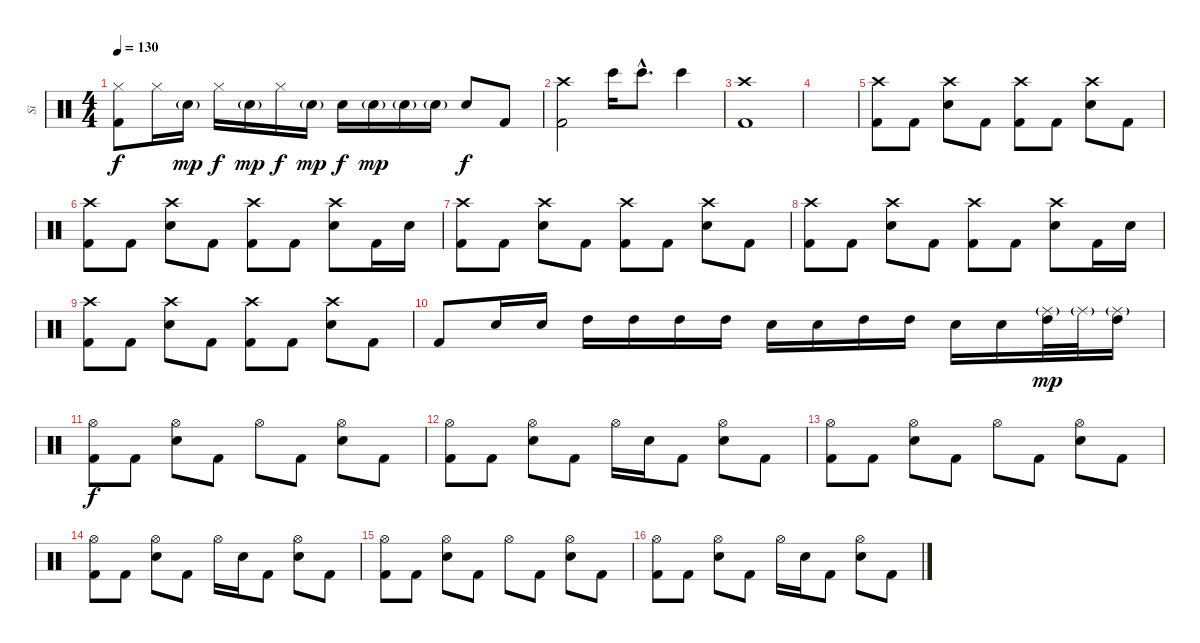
\track ("Si" "Si") {instrument percussion}
\staff {score}
\articulation defaults
\ts (4 4)
\tempo 130
\clef neutral
\ks c
("Hi-Hat (closed)" "Kick (hit) 2").8{dy f} "Hi-Hat (closed)".16 "Electric Snare (hit)"{g}.16{dy mp} "Hi-Hat (closed)".16{dy f} "Electric Snare (hit)"{g}.16{dy mp} "Hi-Hat (closed)".16{dy f} "Electric Snare (hit)"{g}.16{dy mp} "Electric Snare (hit)".16{dy f} "Electric Snare (hit)"{g}.16{dy mp} "Electric Snare (hit)"{g}.16 "Electric Snare (hit)"{g}.16 "Electric Snare (hit)".8{dy f} "Kick (hit) 2".8 |
("Crash high (hit)" "Kick (hit) 2").2 "Bongo High (hit)".16 "Bongo High (hit)"{hac}.8{d} "Bongo High (hit)".4 |
("Crash high (hit)" "Kick (hit) 2").1 |
|
("Crash high (hit)" "Kick (hit) 2").8 "Kick (hit) 2".8 ("Crash high (hit)" "Electric Snare (hit)").8 "Kick (hit) 2".8 ("Crash high (hit)" "Kick (hit) 2").8 "Kick (hit) 2".8 ("Crash high (hit)" "Electric Snare (hit)").8 "Kick (hit) 2".8 |
("Crash high (hit)" "Kick (hit) 2").8 "Kick (hit) 2".8 ("Crash high (hit)" "Electric Snare (hit)").8 "Kick (hit) 2".8 ("Crash high (hit)" "Kick (hit) 2").8 "Kick (hit) 2".8 ("Crash high (hit)" "Electric Snare (hit)").8 "Kick (hit) 2".16 "Electric Snare (hit)".16 |
("Crash high (hit)" "Kick (hit) 2").8 "Kick (hit) 2".8 ("Crash high (hit)" "Electric Snare (hit)").8 "Kick (hit) 2".8 ("Crash high (hit)" "Kick (hit) 2").8 "Kick (hit) 2".8 ("Crash high (hit)" "Electric Snare (hit)").8 "Kick (hit) 2".8 |
("Crash high (hit)" "Kick (hit) 2").8 "Kick (hit) 2".8 ("Crash high (hit)" "Electric Snare (hit)").8 "Kick (hit) 2".8 ("Crash high (hit)" "Kick (hit) 2").8 "Kick (hit) 2".8 ("Crash high (hit)" "Electric Snare (hit)").8 "Kick (hit) 2".16 "Electric Snare (hit)".16 |
("Crash high (hit)" "Kick (hit) 2").8 "Kick (hit) 2".8 ("Crash high (hit)" "Electric Snare (hit)").8 "Kick (hit) 2".8 ("Crash high (hit)" "Kick (hit) 2").8 "Kick (hit) 2".8 ("Crash high (hit)" "Electric Snare (hit)").8 "Kick (hit) 2".8 |
"Kick (hit) 2".8 "Electric Snare (hit)".16 "Electric Snare (hit)".16 "High Tom (hit)".16 "High Tom (hit)".16 "High Tom (hit)".16 "High Tom (hit)".16 "Electric Snare (hit)".16 "Electric Snare (hit)".16 "High Tom (hit)".16 "High Tom (hit)".16 "Electric Snare (hit)".16 "Electric Snare (hit)".16 ("Ride (middle)"{g} "High Tom (hit)").32{dy mp} "Ride (middle)"{g}.32 ("Ride (middle)"{g} "High Tom (hit)").16 |
("Hi-Hat (open)" "Kick (hit) 2").8{dy f} "Kick (hit) 2".8 ("Hi-Hat (open)" "Electric Snare (hit)").8 "Kick (hit) 2".8 "Hi-Hat (open)".8 "Kick (hit) 2".8 ("Hi-Hat (open)" "Electric Snare (hit)").8 "Kick (hit) 2".8 |
("Hi-Hat (open)" "Kick (hit) 2").8 "Kick (hit) 2".8 ("Hi-Hat (open)" "Electric Snare (hit)").8 "Kick (hit) 2".8 "Hi-Hat (open)".16 "Electric Snare (hit)".16 "Kick (hit) 2".8 ("Hi-Hat (open)" "Electric Snare (hit)").8 "Kick (hit) 2".8 |
("Hi-Hat (open)" "Kick (hit) 2").8 "Kick (hit) 2".8 ("Hi-Hat (open)" "Electric Snare (hit)").8 "Kick (hit) 2".8 "Hi-Hat (open)".8 "Kick (hit) 2".8 ("Hi-Hat (open)" "Electric Snare (hit)").8 "Kick (hit) 2".8 |
("Hi-Hat (open)" "Kick (hit) 2").8 "Kick (hit) 2".8 ("Hi-Hat (open)" "Electric Snare (hit)").8 "Kick (hit) 2".8 "Hi-Hat (open)".16 "Electric Snare (hit)".16 "Kick (hit) 2".8 ("Hi-Hat (open)" "Electric Snare (hit)").8 "Kick (hit) 2".8 |
("Hi-Hat (open)" "Kick (hit) 2").8 "Kick (hit) 2".8 ("Hi-Hat (open)" "Electric Snare (hit)").8 "Kick (hit) 2".8 "Hi-Hat (open)".8 "Kick (hit) 2".8 ("Hi-Hat (open)" "Electric Snare (hit)").8 "Kick (hit) 2".8 |
("Hi-Hat (open)" "Kick (hit) 2").8 "Kick (hit) 2".8 ("Hi-Hat (open)" "Electric Snare (hit)").8 "Kick (hit) 2".8 "Hi-Hat (open)".16 "Electric Snare (hit)".16 "Kick (hit) 2".8 ("Hi-Hat (open)" "Electric Snare (hit)").8 "Kick (hit) 2".8
